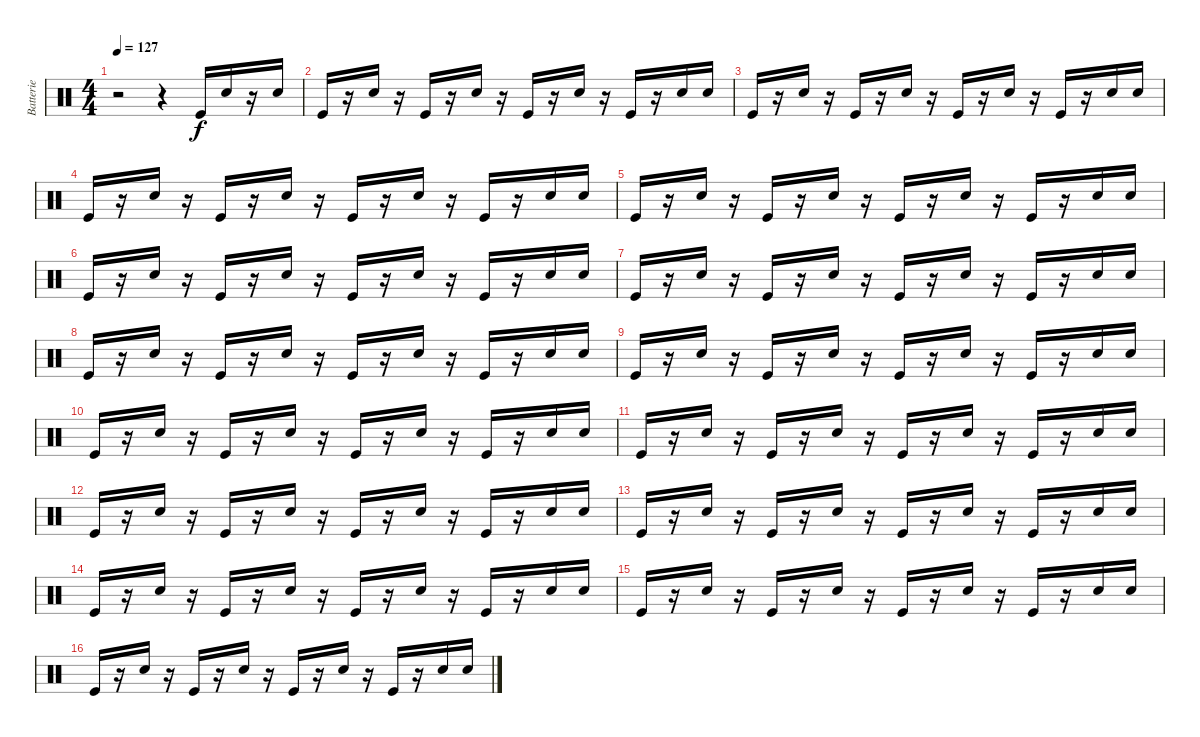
\track ("Batterie" "Batterie") {instrument percussion}
\staff {score}
\articulation defaults
\ts (4 4)
\tempo 127
\clef neutral
\ks c
r.2{dy f} r.4 "Kick (hit)".16 "Snare (hit) 2".16 r.16 "Snare (hit) 2".16 |
"Kick (hit)".16 r.16 "Snare (hit) 2".16 r.16 "Kick (hit)".16 r.16 "Snare (hit) 2".16 r.16 "Kick (hit)".16 r.16 "Snare (hit) 2".16 r.16 "Kick (hit)".16 r.16 "Snare (hit) 2".16 "Snare (hit) 2".16 |
"Kick (hit)".16 r.16 "Snare (hit) 2".16 r.16 "Kick (hit)".16 r.16 "Snare (hit) 2".16 r.16 "Kick (hit)".16 r.16 "Snare (hit) 2".16 r.16 "Kick (hit)".16 r.16 "Snare (hit) 2".16 "Snare (hit) 2".16 |
"Kick (hit)".16 r.16 "Snare (hit) 2".16 r.16 "Kick (hit)".16 r.16 "Snare (hit) 2".16 r.16 "Kick (hit)".16 r.16 "Snare (hit) 2".16 r.16 "Kick (hit)".16 r.16 "Snare (hit) 2".16 "Snare (hit) 2".16 |
"Kick (hit)".16 r.16 "Snare (hit) 2".16 r.16 "Kick (hit)".16 r.16 "Snare (hit) 2".16 r.16 "Kick (hit)".16 r.16 "Snare (hit) 2".16 r.16 "Kick (hit)".16 r.16 "Snare (hit) 2".16 "Snare (hit) 2".16 |
"Kick (hit)".16 r.16 "Snare (hit) 2".16 r.16 "Kick (hit)".16 r.16 "Snare (hit) 2".16 r.16 "Kick (hit)".16 r.16 "Snare (hit) 2".16 r.16 "Kick (hit)".16 r.16 "Snare (hit) 2".16 "Snare (hit) 2".16 |
"Kick (hit)".16 r.16 "Snare (hit) 2".16 r.16 "Kick (hit)".16 r.16 "Snare (hit) 2".16 r.16 "Kick (hit)".16 r.16 "Snare (hit) 2".16 r.16 "Kick (hit)".16 r.16 "Snare (hit) 2".16 "Snare (hit) 2".16 |
"Kick (hit)".16 r.16 "Snare (hit) 2".16 r.16 "Kick (hit)".16 r.16 "Snare (hit) 2".16 r.16 "Kick (hit)".16 r.16 "Snare (hit) 2".16 r.16 "Kick (hit)".16 r.16 "Snare (hit) 2".16 "Snare (hit) 2".16 |
"Kick (hit)".16 r.16 "Snare (hit) 2".16 r.16 "Kick (hit)".16 r.16 "Snare (hit) 2".16 r.16 "Kick (hit)".16 r.16 "Snare (hit) 2".16 r.16 "Kick (hit)".16 r.16 "Snare (hit) 2".16 "Snare (hit) 2".16 |
"Kick (hit)".16 r.16 "Snare (hit) 2".16 r.16 "Kick (hit)".16 r.16 "Snare (hit) 2".16 r.16 "Kick (hit)".16 r.16 "Snare (hit) 2".16 r.16 "Kick (hit)".16 r.16 "Snare (hit) 2".16 "Snare (hit) 2".16 |
"Kick (hit)".16 r.16 "Snare (hit) 2".16 r.16 "Kick (hit)".16 r.16 "Snare (hit) 2".16 r.16 "Kick (hit)".16 r.16 "Snare (hit) 2".16 r.16 "Kick (hit)".16 r.16 "Snare (hit) 2".16 "Snare (hit) 2".16 |
"Kick (hit)".16 r.16 "Snare (hit) 2".16 r.16 "Kick (hit)".16 r.16 "Snare (hit) 2".16 r.16 "Kick (hit)".16 r.16 "Snare (hit) 2".16 r.16 "Kick (hit)".16 r.16 "Snare (hit) 2".16 "Snare (hit) 2".16 |
"Kick (hit)".16 r.16 "Snare (hit) 2".16 r.16 "Kick (hit)".16 r.16 "Snare (hit) 2".16 r.16 "Kick (hit)".16 r.16 "Snare (hit) 2".16 r.16 "Kick (hit)".16 r.16 "Snare (hit) 2".16 "Snare (hit) 2".16 |
"Kick (hit)".16 r.16 "Snare (hit) 2".16 r.16 "Kick (hit)".16 r.16 "Snare (hit) 2".16 r.16 "Kick (hit)".16 r.16 "Snare (hit) 2".16 r.16 "Kick (hit)".16 r.16 "Snare (hit) 2".16 "Snare (hit) 2".16 |
"Kick (hit)".16 r.16 "Snare (hit) 2".16 r.16 "Kick (hit)".16 r.16 "Snare (hit) 2".16 r.16 "Kick (hit)".16 r.16 "Snare (hit) 2".16 r.16 "Kick (hit)".16 r.16 "Snare (hit) 2".16 "Snare (hit) 2".16 |
"Kick (hit)".16 r.16 "Snare (hit) 2".16 r.16 "Kick (hit)".16 r.16 "Snare (hit) 2".16 r.16 "Kick (hit)".16 r.16 "Snare (hit) 2".16 r.16 "Kick (hit)".16 r.16 "Snare (hit) 2".16 "Snare (hit) 2".16
